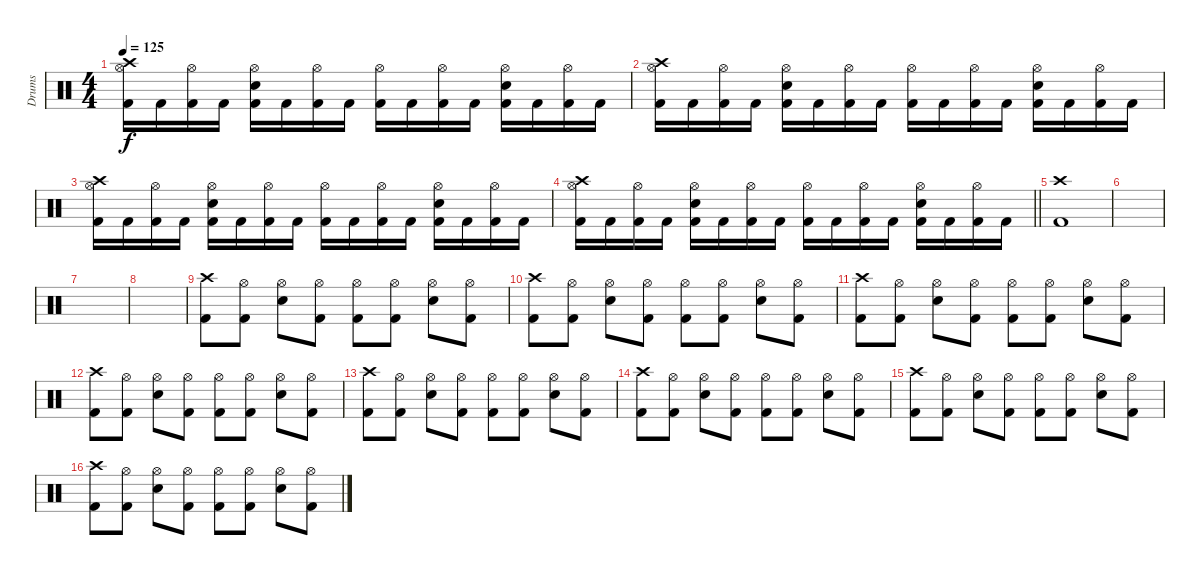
\track ("Drums" "Drums") {instrument percussion}
\staff {score}
\articulation defaults
\ts (4 4)
\tempo 125
\clef neutral
\ks c
("Kick (hit) 2" "Crash high (hit)" "Hi-Hat (open)").16{dy f} "Kick (hit) 2".16 ("Kick (hit) 2" "Hi-Hat (open)").16 "Kick (hit) 2".16 ("Kick (hit) 2" "Electric Snare (hit)" "Hi-Hat (open)").16 "Kick (hit) 2".16 ("Kick (hit) 2" "Hi-Hat (open)").16 "Kick (hit) 2".16 ("Kick (hit) 2" "Hi-Hat (open)").16 "Kick (hit) 2".16 ("Kick (hit) 2" "Hi-Hat (open)").16 "Kick (hit) 2".16 ("Kick (hit) 2" "Electric Snare (hit)" "Hi-Hat (open)").16 "Kick (hit) 2".16 ("Kick (hit) 2" "Hi-Hat (open)").16 "Kick (hit) 2".16 |
("Kick (hit) 2" "Crash high (hit)" "Hi-Hat (open)").16 "Kick (hit) 2".16 ("Kick (hit) 2" "Hi-Hat (open)").16 "Kick (hit) 2".16 ("Kick (hit) 2" "Electric Snare (hit)" "Hi-Hat (open)").16 "Kick (hit) 2".16 ("Kick (hit) 2" "Hi-Hat (open)").16 "Kick (hit) 2".16 ("Kick (hit) 2" "Hi-Hat (open)").16 "Kick (hit) 2".16 ("Kick (hit) 2" "Hi-Hat (open)").16 "Kick (hit) 2".16 ("Kick (hit) 2" "Electric Snare (hit)" "Hi-Hat (open)").16 "Kick (hit) 2".16 ("Kick (hit) 2" "Hi-Hat (open)").16 "Kick (hit) 2".16 |
("Kick (hit) 2" "Crash high (hit)" "Hi-Hat (open)").16 "Kick (hit) 2".16 ("Kick (hit) 2" "Hi-Hat (open)").16 "Kick (hit) 2".16 ("Kick (hit) 2" "Electric Snare (hit)" "Hi-Hat (open)").16 "Kick (hit) 2".16 ("Kick (hit) 2" "Hi-Hat (open)").16 "Kick (hit) 2".16 ("Kick (hit) 2" "Hi-Hat (open)").16 "Kick (hit) 2".16 ("Kick (hit) 2" "Hi-Hat (open)").16 "Kick (hit) 2".16 ("Kick (hit) 2" "Electric Snare (hit)" "Hi-Hat (open)").16 "Kick (hit) 2".16 ("Kick (hit) 2" "Hi-Hat (open)").16 "Kick (hit) 2".16 |
\barLineRight lightlight
("Kick (hit) 2" "Crash high (hit)" "Hi-Hat (open)").16 "Kick (hit) 2".16 ("Kick (hit) 2" "Hi-Hat (open)").16 "Kick (hit) 2".16 ("Kick (hit) 2" "Electric Snare (hit)" "Hi-Hat (open)").16 "Kick (hit) 2".16 ("Kick (hit) 2" "Hi-Hat (open)").16 "Kick (hit) 2".16 ("Kick (hit) 2" "Hi-Hat (open)").16 "Kick (hit) 2".16 ("Kick (hit) 2" "Hi-Hat (open)").16 "Kick (hit) 2".16 ("Kick (hit) 2" "Electric Snare (hit)" "Hi-Hat (open)").16 "Kick (hit) 2".16 ("Kick (hit) 2" "Hi-Hat (open)").16 "Kick (hit) 2".16 |
("Kick (hit) 2" "Crash high (hit)").1 |
|
|
|
("Kick (hit) 2" "Crash high (hit)").8 ("Kick (hit) 2" "Hi-Hat (open)").8 ("Electric Snare (hit)" "Hi-Hat (open)").8 ("Kick (hit) 2" "Hi-Hat (open)").8 ("Kick (hit) 2" "Hi-Hat (open)").8 ("Kick (hit) 2" "Hi-Hat (open)").8 ("Electric Snare (hit)" "Hi-Hat (open)").8 ("Kick (hit) 2" "Hi-Hat (open)").8 |
("Kick (hit) 2" "Crash high (hit)").8 ("Kick (hit) 2" "Hi-Hat (open)").8 ("Electric Snare (hit)" "Hi-Hat (open)").8 ("Kick (hit) 2" "Hi-Hat (open)").8 ("Kick (hit) 2" "Hi-Hat (open)").8 ("Kick (hit) 2" "Hi-Hat (open)").8 ("Electric Snare (hit)" "Hi-Hat (open)").8 ("Kick (hit) 2" "Hi-Hat (open)").8 |
("Kick (hit) 2" "Crash high (hit)").8 ("Kick (hit) 2" "Hi-Hat (open)").8 ("Electric Snare (hit)" "Hi-Hat (open)").8 ("Kick (hit) 2" "Hi-Hat (open)").8 ("Kick (hit) 2" "Hi-Hat (open)").8 ("Kick (hit) 2" "Hi-Hat (open)").8 ("Electric Snare (hit)" "Hi-Hat (open)").8 ("Kick (hit) 2" "Hi-Hat (open)").8 |
("Kick (hit) 2" "Crash high (hit)").8 ("Kick (hit) 2" "Hi-Hat (open)").8 ("Electric Snare (hit)" "Hi-Hat (open)").8 ("Kick (hit) 2" "Hi-Hat (open)").8 ("Kick (hit) 2" "Hi-Hat (open)").8 ("Kick (hit) 2" "Hi-Hat (open)").8 ("Electric Snare (hit)" "Hi-Hat (open)").8 ("Kick (hit) 2" "Hi-Hat (open)").8 |
("Kick (hit) 2" "Crash high (hit)").8 ("Kick (hit) 2" "Hi-Hat (open)").8 ("Electric Snare (hit)" "Hi-Hat (open)").8 ("Kick (hit) 2" "Hi-Hat (open)").8 ("Kick (hit) 2" "Hi-Hat (open)").8 ("Kick (hit) 2" "Hi-Hat (open)").8 ("Electric Snare (hit)" "Hi-Hat (open)").8 ("Kick (hit) 2" "Hi-Hat (open)").8 |
("Kick (hit) 2" "Crash high (hit)").8 ("Kick (hit) 2" "Hi-Hat (open)").8 ("Electric Snare (hit)" "Hi-Hat (open)").8 ("Kick (hit) 2" "Hi-Hat (open)").8 ("Kick (hit) 2" "Hi-Hat (open)").8 ("Kick (hit) 2" "Hi-Hat (open)").8 ("Electric Snare (hit)" "Hi-Hat (open)").8 ("Kick (hit) 2" "Hi-Hat (open)").8 |
("Kick (hit) 2" "Crash high (hit)").8 ("Kick (hit) 2" "Hi-Hat (open)").8 ("Electric Snare (hit)" "Hi-Hat (open)").8 ("Kick (hit) 2" "Hi-Hat (open)").8 ("Kick (hit) 2" "Hi-Hat (open)").8 ("Kick (hit) 2" "Hi-Hat (open)").8 ("Electric Snare (hit)" "Hi-Hat (open)").8 ("Kick (hit) 2" "Hi-Hat (open)").8 |
("Kick (hit) 2" "Crash high (hit)").8 ("Kick (hit) 2" "Hi-Hat (open)").8 ("Electric Snare (hit)" "Hi-Hat (open)").8 ("Kick (hit) 2" "Hi-Hat (open)").8 ("Kick (hit) 2" "Hi-Hat (open)").8 ("Kick (hit) 2" "Hi-Hat (open)").8 ("Electric Snare (hit)" "Hi-Hat (open)").8 ("Kick (hit) 2" "Hi-Hat (open)").8
